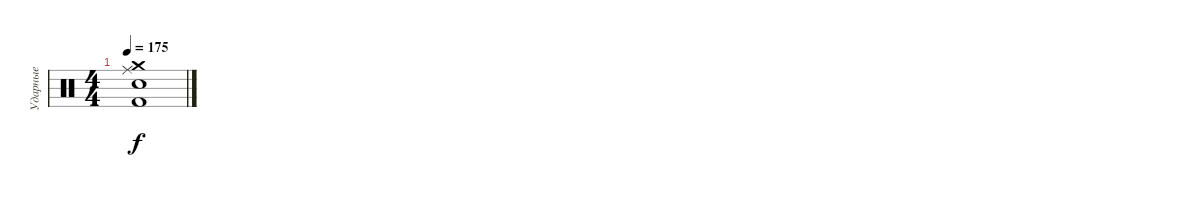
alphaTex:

\track ("Ударные" "Ударные") {instrument percussion}
\staff {score}
\articulation defaults
\ts (4 4)
\tempo 175
\clef neutral
\ks c
("Ride (middle)" "Crash medium (hit)" "Electric Snare (hit)" "Kick (hit) 2").1{dy f}
